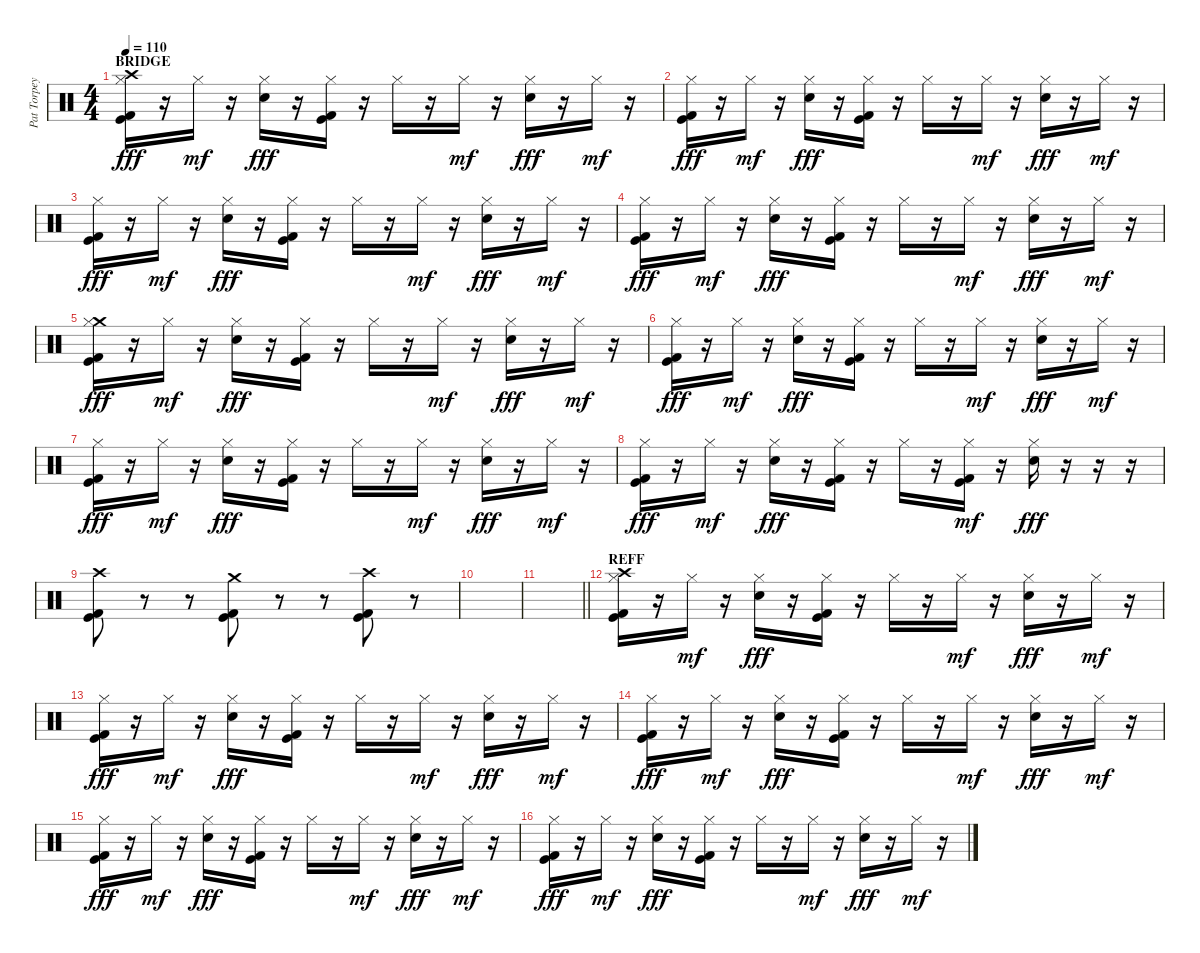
\track ("Pat Torpey" "Pat Torpey") {instrument percussion}
\staff {score}
\articulation defaults
\ts (4 4)
\section ("" "BRIDGE")
\tempo 110
\clef neutral
\ks c
("Crash high (hit)" "Hi-Hat (closed)" "Kick (hit)" "Kick (hit) 2").16{dy fff} r.16 "Hi-Hat (closed)".16{dy mf} r.16 ("Snare (hit) 2" "Hi-Hat (closed)").16{dy fff} r.16 ("Hi-Hat (closed)" "Kick (hit)" "Kick (hit) 2").16 r.16 "Hi-Hat (closed)".16 r.16 "Hi-Hat (closed)".16{dy mf} r.16 ("Snare (hit) 2" "Hi-Hat (closed)").16{dy fff} r.16 "Hi-Hat (closed)".16{dy mf} r.16 |
("Hi-Hat (closed)" "Kick (hit)" "Kick (hit) 2").16{dy fff} r.16 "Hi-Hat (closed)".16{dy mf} r.16 ("Snare (hit) 2" "Hi-Hat (closed)").16{dy fff} r.16 ("Hi-Hat (closed)" "Kick (hit)" "Kick (hit) 2").16 r.16 "Hi-Hat (closed)".16 r.16 "Hi-Hat (closed)".16{dy mf} r.16 ("Snare (hit) 2" "Hi-Hat (closed)").16{dy fff} r.16 "Hi-Hat (closed)".16{dy mf} r.16 |
("Hi-Hat (closed)" "Kick (hit)" "Kick (hit) 2").16{dy fff} r.16 "Hi-Hat (closed)".16{dy mf} r.16 ("Snare (hit) 2" "Hi-Hat (closed)").16{dy fff} r.16 ("Hi-Hat (closed)" "Kick (hit)" "Kick (hit) 2").16 r.16 "Hi-Hat (closed)".16 r.16 "Hi-Hat (closed)".16{dy mf} r.16 ("Snare (hit) 2" "Hi-Hat (closed)").16{dy fff} r.16 "Hi-Hat (closed)".16{dy mf} r.16 |
("Hi-Hat (closed)" "Kick (hit)" "Kick (hit) 2").16{dy fff} r.16 "Hi-Hat (closed)".16{dy mf} r.16 ("Snare (hit) 2" "Hi-Hat (closed)").16{dy fff} r.16 ("Hi-Hat (closed)" "Kick (hit)" "Kick (hit) 2").16 r.16 "Hi-Hat (closed)".16 r.16 "Hi-Hat (closed)".16{dy mf} r.16 ("Snare (hit) 2" "Hi-Hat (closed)").16{dy fff} r.16 "Hi-Hat (closed)".16{dy mf} r.16 |
("Crash medium (hit)" "Hi-Hat (closed)" "Kick (hit)" "Kick (hit) 2").16{dy fff} r.16 "Hi-Hat (closed)".16{dy mf} r.16 ("Snare (hit) 2" "Hi-Hat (closed)").16{dy fff} r.16 ("Hi-Hat (closed)" "Kick (hit)" "Kick (hit) 2").16 r.16 "Hi-Hat (closed)".16 r.16 "Hi-Hat (closed)".16{dy mf} r.16 ("Snare (hit) 2" "Hi-Hat (closed)").16{dy fff} r.16 "Hi-Hat (closed)".16{dy mf} r.16 |
("Hi-Hat (closed)" "Kick (hit)" "Kick (hit) 2").16{dy fff} r.16 "Hi-Hat (closed)".16{dy mf} r.16 ("Snare (hit) 2" "Hi-Hat (closed)").16{dy fff} r.16 ("Hi-Hat (closed)" "Kick (hit)" "Kick (hit) 2").16 r.16 "Hi-Hat (closed)".16 r.16 "Hi-Hat (closed)".16{dy mf} r.16 ("Snare (hit) 2" "Hi-Hat (closed)").16{dy fff} r.16 "Hi-Hat (closed)".16{dy mf} r.16 |
("Hi-Hat (closed)" "Kick (hit)" "Kick (hit) 2").16{dy fff} r.16 "Hi-Hat (closed)".16{dy mf} r.16 ("Snare (hit) 2" "Hi-Hat (closed)").16{dy fff} r.16 ("Hi-Hat (closed)" "Kick (hit)" "Kick (hit) 2").16 r.16 "Hi-Hat (closed)".16 r.16 "Hi-Hat (closed)".16{dy mf} r.16 ("Snare (hit) 2" "Hi-Hat (closed)").16{dy fff} r.16 "Hi-Hat (closed)".16{dy mf} r.16 |
("Hi-Hat (closed)" "Kick (hit)" "Kick (hit) 2").16{dy fff} r.16 "Hi-Hat (closed)".16{dy mf} r.16 ("Snare (hit) 2" "Hi-Hat (closed)").16{dy fff} r.16 ("Hi-Hat (closed)" "Kick (hit)" "Kick (hit) 2").16 r.16 "Hi-Hat (closed)".16 r.16 ("Hi-Hat (closed)" "Kick (hit)" "Kick (hit) 2").16{dy mf} r.16 ("Snare (hit) 2" "Hi-Hat (closed)").16{dy fff} r.16 r.16 r.16 |
("Kick (hit)" "Kick (hit) 2" "Crash high (hit)").8 r.8 r.8 ("Kick (hit)" "Kick (hit) 2" "Crash medium (hit)").8 r.8 r.8 ("Kick (hit)" "Kick (hit) 2" "Crash high (hit)").8 r.8 |
|
\barLineRight lightlight
|
\section ("" "REFF")
("Crash high (hit)" "Hi-Hat (closed)" "Kick (hit)" "Kick (hit) 2").16 r.16 "Hi-Hat (closed)".16{dy mf} r.16 ("Snare (hit) 2" "Hi-Hat (closed)").16{dy fff} r.16 ("Hi-Hat (closed)" "Kick (hit)" "Kick (hit) 2").16 r.16 "Hi-Hat (closed)".16 r.16 "Hi-Hat (closed)".16{dy mf} r.16 ("Snare (hit) 2" "Hi-Hat (closed)").16{dy fff} r.16 "Hi-Hat (closed)".16{dy mf} r.16 |
("Hi-Hat (closed)" "Kick (hit)" "Kick (hit) 2").16{dy fff} r.16 "Hi-Hat (closed)".16{dy mf} r.16 ("Snare (hit) 2" "Hi-Hat (closed)").16{dy fff} r.16 ("Hi-Hat (closed)" "Kick (hit)" "Kick (hit) 2").16 r.16 "Hi-Hat (closed)".16 r.16 "Hi-Hat (closed)".16{dy mf} r.16 ("Snare (hit) 2" "Hi-Hat (closed)").16{dy fff} r.16 "Hi-Hat (closed)".16{dy mf} r.16 |
("Hi-Hat (closed)" "Kick (hit)" "Kick (hit) 2").16{dy fff} r.16 "Hi-Hat (closed)".16{dy mf} r.16 ("Snare (hit) 2" "Hi-Hat (closed)").16{dy fff} r.16 ("Hi-Hat (closed)" "Kick (hit)" "Kick (hit) 2").16 r.16 "Hi-Hat (closed)".16 r.16 "Hi-Hat (closed)".16{dy mf} r.16 ("Snare (hit) 2" "Hi-Hat (closed)").16{dy fff} r.16 "Hi-Hat (closed)".16{dy mf} r.16 |
("Hi-Hat (closed)" "Kick (hit)" "Kick (hit) 2").16{dy fff} r.16 "Hi-Hat (closed)".16{dy mf} r.16 ("Snare (hit) 2" "Hi-Hat (closed)").16{dy fff} r.16 ("Hi-Hat (closed)" "Kick (hit)" "Kick (hit) 2").16 r.16 "Hi-Hat (closed)".16 r.16 "Hi-Hat (closed)".16{dy mf} r.16 ("Snare (hit) 2" "Hi-Hat (closed)").16{dy fff} r.16 "Hi-Hat (closed)".16{dy mf} r.16 |
("Hi-Hat (closed)" "Kick (hit)" "Kick (hit) 2").16{dy fff} r.16 "Hi-Hat (closed)".16{dy mf} r.16 ("Snare (hit) 2" "Hi-Hat (closed)").16{dy fff} r.16 ("Hi-Hat (closed)" "Kick (hit)" "Kick (hit) 2").16 r.16 "Hi-Hat (closed)".16 r.16 "Hi-Hat (closed)".16{dy mf} r.16 ("Snare (hit) 2" "Hi-Hat (closed)").16{dy fff} r.16 "Hi-Hat (closed)".16{dy mf} r.16
